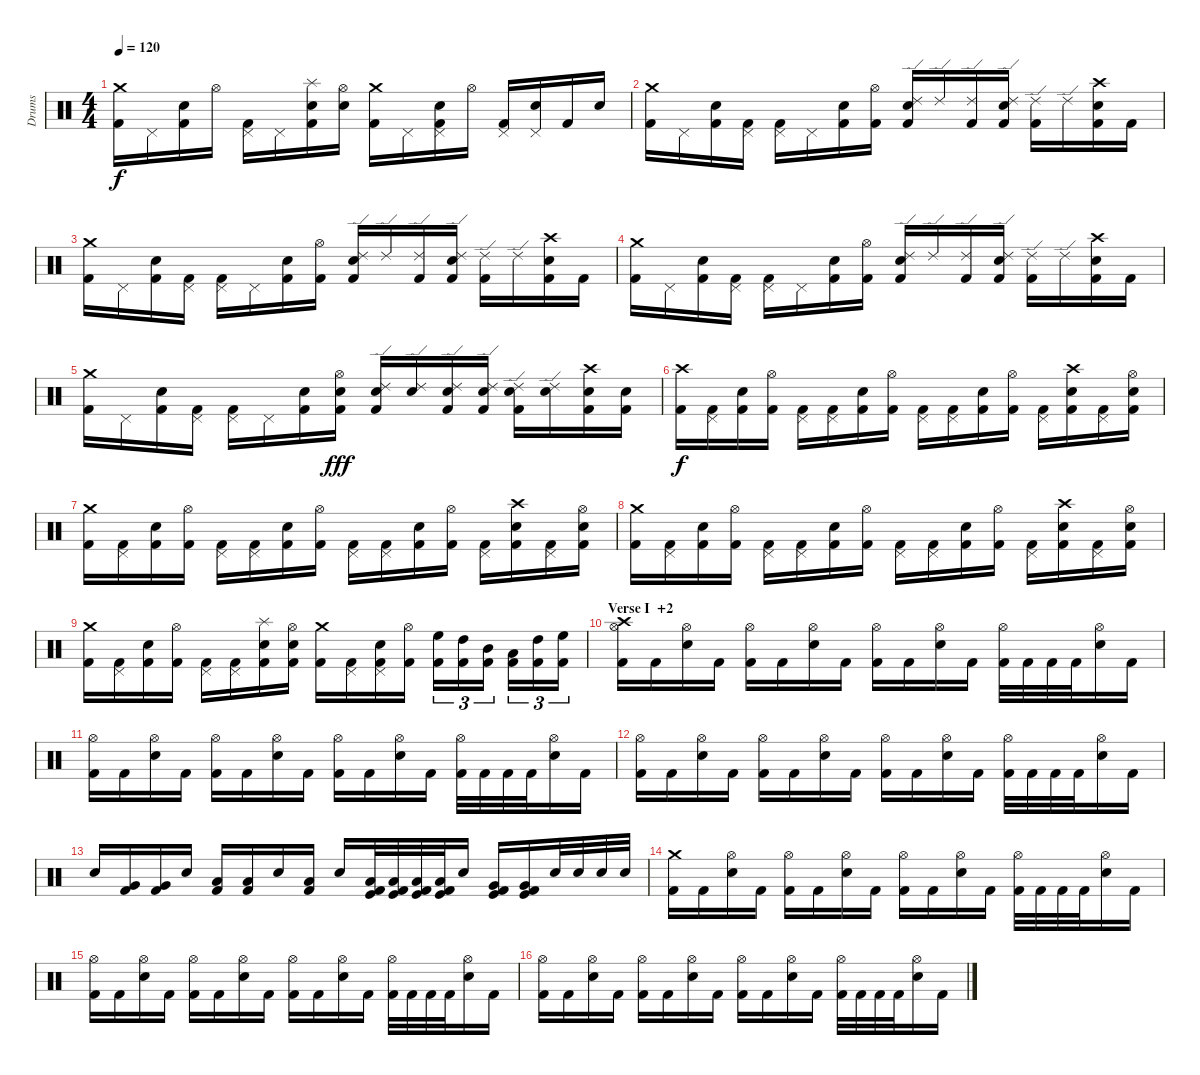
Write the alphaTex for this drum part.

\track ("Drums" "Drums") {instrument percussion}
\staff {score}
\articulation defaults
\ts (4 4)
\tempo 120
\clef neutral
\ks c
("Crash medium (hit)" "Kick (hit) 2").16{dy f} "Pedal Hi-Hat (hit)".16 ("Snare (hit) 2" "Kick (hit) 2").16 "Hi-Hat (open)".16 ("Pedal Hi-Hat (hit)" "Kick (hit) 2").16 "Pedal Hi-Hat (hit)".16 ("Splash (hit)" "Snare (hit) 2" "Kick (hit) 2").16 ("Hi-Hat (open)" "Snare (hit) 2").16 ("Crash medium (hit)" "Kick (hit) 2").16 "Pedal Hi-Hat (hit)".16 ("Pedal Hi-Hat (hit)" "Snare (hit) 2" "Kick (hit) 2").16 "Hi-Hat (open)".16 ("Pedal Hi-Hat (hit)" "Kick (hit) 2").16 ("Pedal Hi-Hat (hit)" "Snare (hit) 2").16 "Kick (hit) 2".16 "Snare (hit) 2".16 |
("Crash medium (hit)" "Kick (hit) 2").16 "Pedal Hi-Hat (hit)".16 ("Snare (hit) 2" "Kick (hit) 2").16 ("Pedal Hi-Hat (hit)" "Kick (hit) 2").16 ("Pedal Hi-Hat (hit)" "Kick (hit) 2").16 "Pedal Hi-Hat (hit)".16 ("Snare (hit) 2" "Kick (hit) 2").16 ("Hi-Hat (open)" "Kick (hit) 2").16 ("Ride (edge) 2" "Snare (hit) 2" "Kick (hit) 2").16 "Ride (edge) 2".16 ("Ride (edge) 2" "Kick (hit) 2").16 ("Ride (edge) 2" "Snare (hit) 2" "Kick (hit) 2").16 ("Ride (edge) 2" "Kick (hit) 2").16 "Ride (edge) 2".16 ("Crash high (hit)" "Snare (hit) 2" "Kick (hit) 2").16 "Kick (hit) 2".16 |
("Crash medium (hit)" "Kick (hit) 2").16 "Pedal Hi-Hat (hit)".16 ("Snare (hit) 2" "Kick (hit) 2").16 ("Pedal Hi-Hat (hit)" "Kick (hit) 2").16 ("Pedal Hi-Hat (hit)" "Kick (hit) 2").16 "Pedal Hi-Hat (hit)".16 ("Snare (hit) 2" "Kick (hit) 2").16 ("Hi-Hat (open)" "Kick (hit) 2").16 ("Ride (edge) 2" "Snare (hit) 2" "Kick (hit) 2").16 "Ride (edge) 2".16 ("Ride (edge) 2" "Kick (hit) 2").16 ("Ride (edge) 2" "Snare (hit) 2" "Kick (hit) 2").16 ("Ride (edge) 2" "Kick (hit) 2").16 "Ride (edge) 2".16 ("Crash high (hit)" "Snare (hit) 2" "Kick (hit) 2").16 "Kick (hit) 2".16 |
("Crash medium (hit)" "Kick (hit) 2").16 "Pedal Hi-Hat (hit)".16 ("Snare (hit) 2" "Kick (hit) 2").16 ("Pedal Hi-Hat (hit)" "Kick (hit) 2").16 ("Pedal Hi-Hat (hit)" "Kick (hit) 2").16 "Pedal Hi-Hat (hit)".16 ("Snare (hit) 2" "Kick (hit) 2").16 ("Hi-Hat (open)" "Kick (hit) 2").16 ("Ride (edge) 2" "Snare (hit) 2" "Kick (hit) 2").16 "Ride (edge) 2".16 ("Ride (edge) 2" "Kick (hit) 2").16 ("Ride (edge) 2" "Snare (hit) 2" "Kick (hit) 2").16 ("Ride (edge) 2" "Kick (hit) 2").16 "Ride (edge) 2".16 ("Crash high (hit)" "Snare (hit) 2" "Kick (hit) 2").16 "Kick (hit) 2".16 |
("Crash medium (hit)" "Kick (hit) 2").16 "Pedal Hi-Hat (hit)".16 ("Snare (hit) 2" "Kick (hit) 2").16 ("Pedal Hi-Hat (hit)" "Kick (hit) 2").16 ("Pedal Hi-Hat (hit)" "Kick (hit) 2").16 "Pedal Hi-Hat (hit)".16 ("Snare (hit) 2" "Kick (hit) 2").16 ("Hi-Hat (open)" "Snare (hit) 2" "Kick (hit) 2").16{dy fff} ("Ride (edge) 2" "Snare (hit) 2" "Kick (hit) 2").16 ("Ride (edge) 2" "Snare (hit) 2").16 ("Ride (edge) 2" "Snare (hit) 2" "Kick (hit) 2").16 ("Ride (edge) 2" "Snare (hit) 2" "Kick (hit) 2").16 ("Ride (edge) 2" "Snare (hit) 2" "Kick (hit) 2").16 ("Ride (edge) 2" "Snare (hit) 2").16 ("Crash high (hit)" "Snare (hit) 2" "Kick (hit) 2").16 ("Snare (hit) 2" "Kick (hit) 2").16 |
("Crash high (hit)" "Kick (hit) 2").16{dy f} ("Pedal Hi-Hat (hit)" "Kick (hit) 2").16 ("Snare (hit) 2" "Kick (hit) 2").16 ("Hi-Hat (open)" "Kick (hit) 2").16 ("Pedal Hi-Hat (hit)" "Kick (hit) 2").16 ("Pedal Hi-Hat (hit)" "Kick (hit) 2").16 ("Snare (hit) 2" "Kick (hit) 2").16 ("Hi-Hat (open)" "Kick (hit) 2").16 ("Pedal Hi-Hat (hit)" "Kick (hit) 2").16 ("Pedal Hi-Hat (hit)" "Kick (hit) 2").16 ("Snare (hit) 2" "Kick (hit) 2").16 ("Hi-Hat (open)" "Kick (hit) 2").16 ("Pedal Hi-Hat (hit)" "Kick (hit) 2").16 ("Crash high (hit)" "Snare (hit) 2" "Kick (hit) 2").16 ("Pedal Hi-Hat (hit)" "Kick (hit) 2").16 ("Hi-Hat (open)" "Snare (hit) 2" "Kick (hit) 2").16 |
("Crash medium (hit)" "Kick (hit) 2").16 ("Pedal Hi-Hat (hit)" "Kick (hit) 2").16 ("Snare (hit) 2" "Kick (hit) 2").16 ("Hi-Hat (open)" "Kick (hit) 2").16 ("Pedal Hi-Hat (hit)" "Kick (hit) 2").16 ("Pedal Hi-Hat (hit)" "Kick (hit) 2").16 ("Snare (hit) 2" "Kick (hit) 2").16 ("Hi-Hat (open)" "Kick (hit) 2").16 ("Pedal Hi-Hat (hit)" "Kick (hit) 2").16 ("Pedal Hi-Hat (hit)" "Kick (hit) 2").16 ("Snare (hit) 2" "Kick (hit) 2").16 ("Hi-Hat (open)" "Kick (hit) 2").16 ("Pedal Hi-Hat (hit)" "Kick (hit) 2").16 ("Crash high (hit)" "Snare (hit) 2" "Kick (hit) 2").16 ("Pedal Hi-Hat (hit)" "Kick (hit) 2").16 ("Hi-Hat (open)" "Snare (hit) 2" "Kick (hit) 2").16 |
("Crash medium (hit)" "Kick (hit) 2").16 ("Pedal Hi-Hat (hit)" "Kick (hit) 2").16 ("Snare (hit) 2" "Kick (hit) 2").16 ("Hi-Hat (open)" "Kick (hit) 2").16 ("Pedal Hi-Hat (hit)" "Kick (hit) 2").16 ("Pedal Hi-Hat (hit)" "Kick (hit) 2").16 ("Snare (hit) 2" "Kick (hit) 2").16 ("Hi-Hat (open)" "Kick (hit) 2").16 ("Pedal Hi-Hat (hit)" "Kick (hit) 2").16 ("Pedal Hi-Hat (hit)" "Kick (hit) 2").16 ("Snare (hit) 2" "Kick (hit) 2").16 ("Hi-Hat (open)" "Kick (hit) 2").16 ("Pedal Hi-Hat (hit)" "Kick (hit) 2").16 ("Crash high (hit)" "Snare (hit) 2" "Kick (hit) 2").16 ("Pedal Hi-Hat (hit)" "Kick (hit) 2").16 ("Hi-Hat (open)" "Snare (hit) 2" "Kick (hit) 2").16 |
("Crash medium (hit)" "Kick (hit) 2").16 ("Pedal Hi-Hat (hit)" "Kick (hit) 2").16 ("Snare (hit) 2" "Kick (hit) 2").16 ("Hi-Hat (open)" "Kick (hit) 2").16 ("Pedal Hi-Hat (hit)" "Kick (hit) 2").16 ("Pedal Hi-Hat (hit)" "Kick (hit) 2").16 ("Splash (hit)" "Snare (hit) 2" "Kick (hit) 2").16 ("Hi-Hat (open)" "Snare (hit) 2" "Kick (hit) 2").16 ("Crash medium (hit)" "Kick (hit) 2").16 ("Pedal Hi-Hat (hit)" "Kick (hit) 2").16 ("Pedal Hi-Hat (hit)" "Snare (hit) 2" "Kick (hit) 2").16 ("Hi-Hat (open)" "Kick (hit) 2").16 ("High Floor Tom (hit)" "Kick (hit) 2").16{tu (3 2)} ("High Tom (hit)" "Kick (hit) 2").16{tu (3 2)} ("Mid Tom (hit)" "Kick (hit) 2").16{tu (3 2)} ("Low Tom (hit)" "Kick (hit) 2").16{tu (3 2)} ("High Tom (hit)" "Kick (hit) 2").16{tu (3 2)} ("High Floor Tom (hit)" "Kick (hit) 2").16{tu (3 2)} |
\section ("" "Verse I  +2")
("Crash high (hit)" "Hi-Hat (open)" "Kick (hit) 2").16 "Kick (hit) 2".16 ("Hi-Hat (open)" "Snare (hit) 2").16 "Kick (hit) 2".16 ("Hi-Hat (open)" "Kick (hit) 2").16 "Kick (hit) 2".16 ("Hi-Hat (open)" "Snare (hit) 2").16 "Kick (hit) 2".16 ("Hi-Hat (open)" "Kick (hit) 2").16 "Kick (hit) 2".16 ("Hi-Hat (open)" "Snare (hit) 2").16 "Kick (hit) 2".16 ("Hi-Hat (open)" "Kick (hit) 2").32 "Kick (hit) 2".32 "Kick (hit) 2".32 "Kick (hit) 2".32 ("Hi-Hat (open)" "Snare (hit) 2").16 "Kick (hit) 2".16 |
("Hi-Hat (open)" "Kick (hit) 2").16 "Kick (hit) 2".16 ("Hi-Hat (open)" "Snare (hit) 2").16 "Kick (hit) 2".16 ("Hi-Hat (open)" "Kick (hit) 2").16 "Kick (hit) 2".16 ("Hi-Hat (open)" "Snare (hit) 2").16 "Kick (hit) 2".16 ("Hi-Hat (open)" "Kick (hit) 2").16 "Kick (hit) 2".16 ("Hi-Hat (open)" "Snare (hit) 2").16 "Kick (hit) 2".16 ("Hi-Hat (open)" "Kick (hit) 2").32 "Kick (hit) 2".32 "Kick (hit) 2".32 "Kick (hit) 2".32 ("Hi-Hat (open)" "Snare (hit) 2").16 "Kick (hit) 2".16 |
("Hi-Hat (open)" "Kick (hit) 2").16 "Kick (hit) 2".16 ("Hi-Hat (open)" "Snare (hit) 2").16 "Kick (hit) 2".16 ("Hi-Hat (open)" "Kick (hit) 2").16 "Kick (hit) 2".16 ("Hi-Hat (open)" "Snare (hit) 2").16 "Kick (hit) 2".16 ("Hi-Hat (open)" "Kick (hit) 2").16 "Kick (hit) 2".16 ("Hi-Hat (open)" "Snare (hit) 2").16 "Kick (hit) 2".16 ("Hi-Hat (open)" "Kick (hit) 2").32 "Kick (hit) 2".32 "Kick (hit) 2".32 "Kick (hit) 2".32 ("Hi-Hat (open)" "Snare (hit) 2").16 "Kick (hit) 2".16 |
"Snare (hit) 2".16 ("Very Low Tom (hit)" "Kick (hit) 2").16 ("Very Low Tom (hit)" "Kick (hit) 2").16 "Snare (hit) 2".16 ("Low Floor Tom (hit)" "Kick (hit) 2").16 ("Low Floor Tom (hit)" "Kick (hit) 2").16 "Snare (hit) 2".16 ("Low Floor Tom (hit)" "Kick (hit) 2").16 "Snare (hit) 2".16 ("Low Floor Tom (hit)" "Kick (hit)" "Kick (hit) 2").32 ("Low Floor Tom (hit)" "Kick (hit)" "Kick (hit) 2").32 ("Low Floor Tom (hit)" "Kick (hit)" "Kick (hit) 2").32 ("Low Floor Tom (hit)" "Kick (hit)" "Kick (hit) 2").32 "Snare (hit) 2".16 ("Very Low Tom (hit)" "Kick (hit)" "Kick (hit) 2").16 ("Very Low Tom (hit)" "Kick (hit)" "Kick (hit) 2").16 "Snare (hit) 2".32 "Snare (hit) 2".32 "Snare (hit) 2".32 "Snare (hit) 2".32 |
("Crash medium (hit)" "Kick (hit) 2").16 "Kick (hit) 2".16 ("Hi-Hat (open)" "Snare (hit) 2").16 "Kick (hit) 2".16 ("Hi-Hat (open)" "Kick (hit) 2").16 "Kick (hit) 2".16 ("Hi-Hat (open)" "Snare (hit) 2").16 "Kick (hit) 2".16 ("Hi-Hat (open)" "Kick (hit) 2").16 "Kick (hit) 2".16 ("Hi-Hat (open)" "Snare (hit) 2").16 "Kick (hit) 2".16 ("Hi-Hat (open)" "Kick (hit) 2").32 "Kick (hit) 2".32 "Kick (hit) 2".32 "Kick (hit) 2".32 ("Hi-Hat (open)" "Snare (hit) 2").16 "Kick (hit) 2".16 |
("Hi-Hat (open)" "Kick (hit) 2").16 "Kick (hit) 2".16 ("Hi-Hat (open)" "Snare (hit) 2").16 "Kick (hit) 2".16 ("Hi-Hat (open)" "Kick (hit) 2").16 "Kick (hit) 2".16 ("Hi-Hat (open)" "Snare (hit) 2").16 "Kick (hit) 2".16 ("Hi-Hat (open)" "Kick (hit) 2").16 "Kick (hit) 2".16 ("Hi-Hat (open)" "Snare (hit) 2").16 "Kick (hit) 2".16 ("Hi-Hat (open)" "Kick (hit) 2").32 "Kick (hit) 2".32 "Kick (hit) 2".32 "Kick (hit) 2".32 ("Hi-Hat (open)" "Snare (hit) 2").16 "Kick (hit) 2".16 |
("Hi-Hat (open)" "Kick (hit) 2").16 "Kick (hit) 2".16 ("Hi-Hat (open)" "Snare (hit) 2").16 "Kick (hit) 2".16 ("Hi-Hat (open)" "Kick (hit) 2").16 "Kick (hit) 2".16 ("Hi-Hat (open)" "Snare (hit) 2").16 "Kick (hit) 2".16 ("Hi-Hat (open)" "Kick (hit) 2").16 "Kick (hit) 2".16 ("Hi-Hat (open)" "Snare (hit) 2").16 "Kick (hit) 2".16 ("Hi-Hat (open)" "Kick (hit) 2").32 "Kick (hit) 2".32 "Kick (hit) 2".32 "Kick (hit) 2".32 ("Hi-Hat (open)" "Snare (hit) 2").16 "Kick (hit) 2".16
